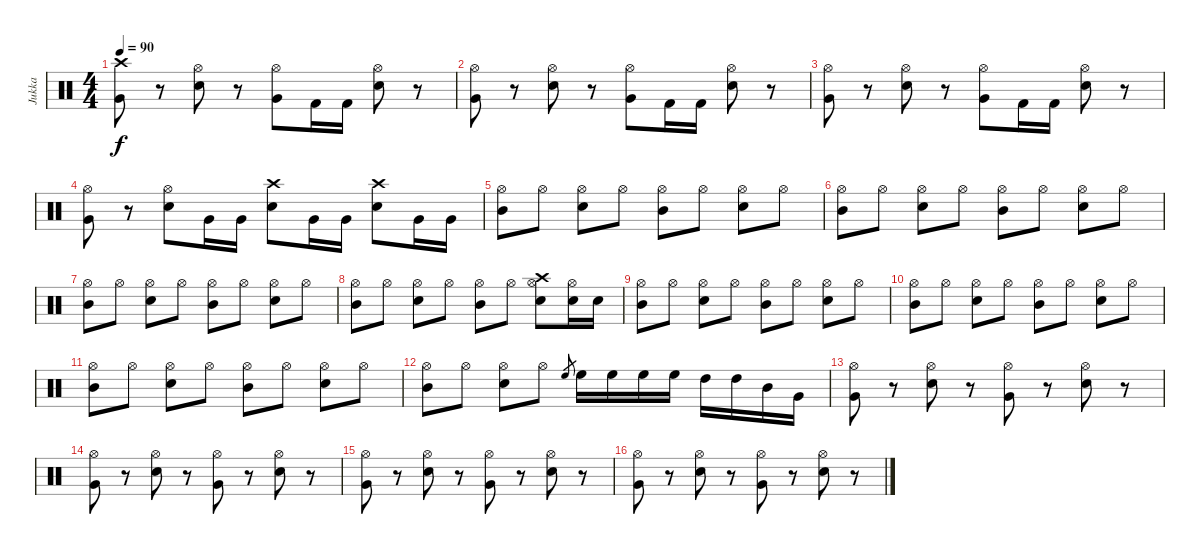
\track ("Jukka" "Jukka") {instrument percussion}
\staff {score}
\articulation defaults
\ts (4 4)
\tempo 90
\clef neutral
\ks c
("Crash high (hit)" "Very Low Tom (hit)").8{dy f} r.8 ("Snare (hit) 2" "Hi-Hat (open)").8 r.8 ("Very Low Tom (hit)" "Hi-Hat (open)").8 "Kick (hit) 2".16 "Kick (hit) 2".16 ("Snare (hit) 2" "Hi-Hat (open)").8 r.8 |
("Hi-Hat (open)" "Very Low Tom (hit)").8 r.8 ("Snare (hit) 2" "Hi-Hat (open)").8 r.8 ("Very Low Tom (hit)" "Hi-Hat (open)").8 "Kick (hit) 2".16 "Kick (hit) 2".16 ("Snare (hit) 2" "Hi-Hat (open)").8 r.8 |
("Hi-Hat (open)" "Very Low Tom (hit)").8 r.8 ("Snare (hit) 2" "Hi-Hat (open)").8 r.8 ("Very Low Tom (hit)" "Hi-Hat (open)").8 "Kick (hit) 2".16 "Kick (hit) 2".16 ("Snare (hit) 2" "Hi-Hat (open)").8 r.8 |
("Hi-Hat (open)" "Very Low Tom (hit)").8 r.8 ("Snare (hit) 2" "Hi-Hat (open)").8 "Very Low Tom (hit)".16 "Very Low Tom (hit)".16 ("Snare (hit) 2" "Crash high (hit)").8 "Very Low Tom (hit)".16 "Very Low Tom (hit)".16 ("Snare (hit) 2" "Crash high (hit)").8 "Very Low Tom (hit)".16 "Very Low Tom (hit)".16 |
("Mid Tom (hit)" "Hi-Hat (open)").8 "Hi-Hat (open)".8 ("Hi-Hat (open)" "Snare (hit) 2").8 "Hi-Hat (open)".8 ("Hi-Hat (open)" "Mid Tom (hit)").8 "Hi-Hat (open)".8 ("Hi-Hat (open)" "Snare (hit) 2").8 "Hi-Hat (open)".8 |
("Mid Tom (hit)" "Hi-Hat (open)").8 "Hi-Hat (open)".8 ("Hi-Hat (open)" "Snare (hit) 2").8 "Hi-Hat (open)".8 ("Hi-Hat (open)" "Mid Tom (hit)").8 "Hi-Hat (open)".8 ("Hi-Hat (open)" "Snare (hit) 2").8 "Hi-Hat (open)".8 |
("Mid Tom (hit)" "Hi-Hat (open)").8 "Hi-Hat (open)".8 ("Hi-Hat (open)" "Snare (hit) 2").8 "Hi-Hat (open)".8 ("Hi-Hat (open)" "Mid Tom (hit)").8 "Hi-Hat (open)".8 ("Hi-Hat (open)" "Snare (hit) 2").8 "Hi-Hat (open)".8 |
("Mid Tom (hit)" "Hi-Hat (open)").8 "Hi-Hat (open)".8 ("Hi-Hat (open)" "Snare (hit) 2").8 "Hi-Hat (open)".8 ("Hi-Hat (open)" "Mid Tom (hit)").8 "Hi-Hat (open)".8 ("Hi-Hat (open)" "Snare (hit) 2" "Crash high (hit)").8 ("Hi-Hat (open)" "Snare (hit) 2").16 "Snare (hit) 2".16 |
("Mid Tom (hit)" "Hi-Hat (open)").8 "Hi-Hat (open)".8 ("Hi-Hat (open)" "Snare (hit) 2").8 "Hi-Hat (open)".8 ("Hi-Hat (open)" "Mid Tom (hit)").8 "Hi-Hat (open)".8 ("Hi-Hat (open)" "Snare (hit) 2").8 "Hi-Hat (open)".8 |
("Mid Tom (hit)" "Hi-Hat (open)").8 "Hi-Hat (open)".8 ("Hi-Hat (open)" "Snare (hit) 2").8 "Hi-Hat (open)".8 ("Hi-Hat (open)" "Mid Tom (hit)").8 "Hi-Hat (open)".8 ("Hi-Hat (open)" "Snare (hit) 2").8 "Hi-Hat (open)".8 |
("Mid Tom (hit)" "Hi-Hat (open)").8 "Hi-Hat (open)".8 ("Hi-Hat (open)" "Snare (hit) 2").8 "Hi-Hat (open)".8 ("Hi-Hat (open)" "Mid Tom (hit)").8 "Hi-Hat (open)".8 ("Hi-Hat (open)" "Snare (hit) 2").8 "Hi-Hat (open)".8 |
("Mid Tom (hit)" "Hi-Hat (open)").8 "Hi-Hat (open)".8 ("Hi-Hat (open)" "Snare (hit) 2").8 "Hi-Hat (open)".8 "High Floor Tom (hit)".8{gr} "High Floor Tom (hit)".16 "High Floor Tom (hit)".16 "High Floor Tom (hit)".16 "High Floor Tom (hit)".16 "High Tom (hit)".16 "High Tom (hit)".16 "Mid Tom (hit)".16 "Very Low Tom (hit)".16 |
("Hi-Hat (open)" "Very Low Tom (hit)").8 r.8 ("Snare (hit) 2" "Hi-Hat (open)").8 r.8 ("Very Low Tom (hit)" "Hi-Hat (open)").8 r.8 ("Snare (hit) 2" "Hi-Hat (open)").8 r.8 |
("Hi-Hat (open)" "Very Low Tom (hit)").8 r.8 ("Snare (hit) 2" "Hi-Hat (open)").8 r.8 ("Very Low Tom (hit)" "Hi-Hat (open)").8 r.8 ("Snare (hit) 2" "Hi-Hat (open)").8 r.8 |
("Hi-Hat (open)" "Very Low Tom (hit)").8 r.8 ("Snare (hit) 2" "Hi-Hat (open)").8 r.8 ("Very Low Tom (hit)" "Hi-Hat (open)").8 r.8 ("Snare (hit) 2" "Hi-Hat (open)").8 r.8 |
("Hi-Hat (open)" "Very Low Tom (hit)").8 r.8 ("Snare (hit) 2" "Hi-Hat (open)").8 r.8 ("Very Low Tom (hit)" "Hi-Hat (open)").8 r.8 ("Snare (hit) 2" "Hi-Hat (open)").8 r.8
